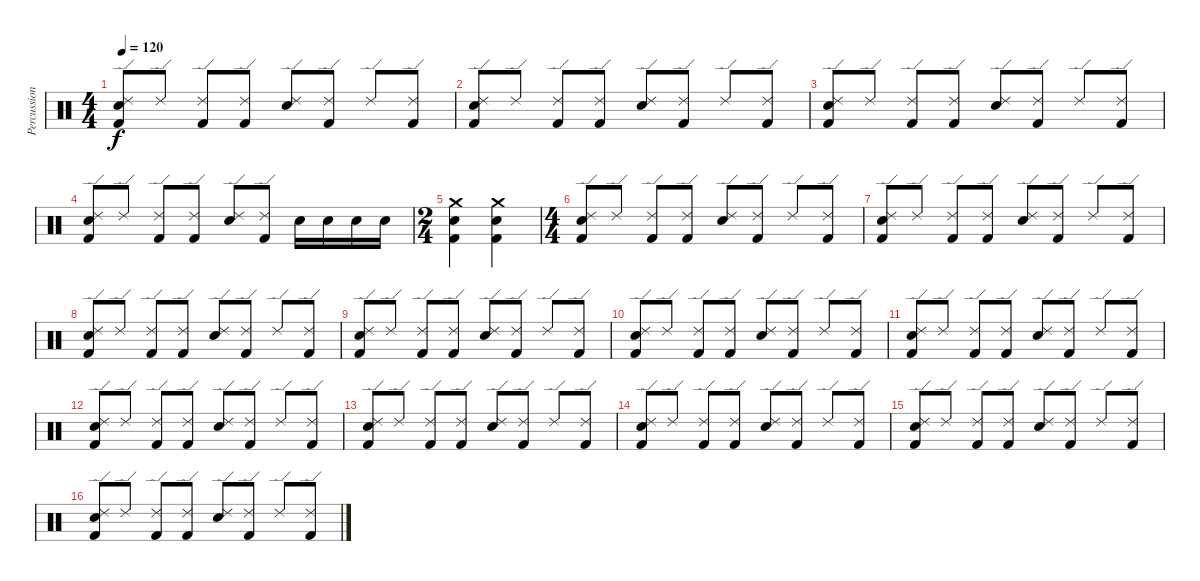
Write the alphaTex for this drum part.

\track ("Percussion" "Percussion") {instrument percussion}
\staff {score}
\articulation defaults
\ts (4 4)
\tempo 120
\clef neutral
\ks c
("Kick (hit) 2" "Electric Snare (hit)" "Ride (edge) 2").8{dy f} "Ride (edge) 2".8 ("Kick (hit) 2" "Ride (edge) 2").8 ("Kick (hit) 2" "Ride (edge) 2").8 ("Electric Snare (hit)" "Ride (edge) 2").8 ("Kick (hit) 2" "Ride (edge) 2").8 "Ride (edge) 2".8 ("Kick (hit) 2" "Ride (edge) 2").8 |
("Kick (hit) 2" "Electric Snare (hit)" "Ride (edge) 2").8 "Ride (edge) 2".8 ("Kick (hit) 2" "Ride (edge) 2").8 ("Kick (hit) 2" "Ride (edge) 2").8 ("Electric Snare (hit)" "Ride (edge) 2").8 ("Kick (hit) 2" "Ride (edge) 2").8 "Ride (edge) 2".8 ("Kick (hit) 2" "Ride (edge) 2").8 |
("Kick (hit) 2" "Electric Snare (hit)" "Ride (edge) 2").8 "Ride (edge) 2".8 ("Kick (hit) 2" "Ride (edge) 2").8 ("Kick (hit) 2" "Ride (edge) 2").8 ("Electric Snare (hit)" "Ride (edge) 2").8 ("Kick (hit) 2" "Ride (edge) 2").8 "Ride (edge) 2".8 ("Kick (hit) 2" "Ride (edge) 2").8 |
("Kick (hit) 2" "Electric Snare (hit)" "Ride (edge) 2").8 "Ride (edge) 2".8 ("Kick (hit) 2" "Ride (edge) 2").8 ("Kick (hit) 2" "Ride (edge) 2").8 ("Electric Snare (hit)" "Ride (edge) 2").8 ("Kick (hit) 2" "Ride (edge) 2").8 "Electric Snare (hit)".16 "Electric Snare (hit)".16 "Electric Snare (hit)".16 "Electric Snare (hit)".16 |
\ts (2 4)
("Kick (hit) 2" "Electric Snare (hit)" "Crash medium (hit)").4 ("Kick (hit) 2" "Electric Snare (hit)" "Crash medium (hit)").4 |
\ts (4 4)
("Kick (hit) 2" "Electric Snare (hit)" "Ride (edge) 2").8 "Ride (edge) 2".8 ("Kick (hit) 2" "Ride (edge) 2").8 ("Kick (hit) 2" "Ride (edge) 2").8 ("Electric Snare (hit)" "Ride (edge) 2").8 ("Kick (hit) 2" "Ride (edge) 2").8 "Ride (edge) 2".8 ("Kick (hit) 2" "Ride (edge) 2").8 |
("Kick (hit) 2" "Electric Snare (hit)" "Ride (edge) 2").8 "Ride (edge) 2".8 ("Kick (hit) 2" "Ride (edge) 2").8 ("Kick (hit) 2" "Ride (edge) 2").8 ("Electric Snare (hit)" "Ride (edge) 2").8 ("Kick (hit) 2" "Ride (edge) 2").8 "Ride (edge) 2".8 ("Kick (hit) 2" "Ride (edge) 2").8 |
("Kick (hit) 2" "Electric Snare (hit)" "Ride (edge) 2").8 "Ride (edge) 2".8 ("Kick (hit) 2" "Ride (edge) 2").8 ("Kick (hit) 2" "Ride (edge) 2").8 ("Electric Snare (hit)" "Ride (edge) 2").8 ("Kick (hit) 2" "Ride (edge) 2").8 "Ride (edge) 2".8 ("Kick (hit) 2" "Ride (edge) 2").8 |
("Kick (hit) 2" "Electric Snare (hit)" "Ride (edge) 2").8 "Ride (edge) 2".8 ("Kick (hit) 2" "Ride (edge) 2").8 ("Kick (hit) 2" "Ride (edge) 2").8 ("Electric Snare (hit)" "Ride (edge) 2").8 ("Kick (hit) 2" "Ride (edge) 2").8 "Ride (edge) 2".8 ("Kick (hit) 2" "Ride (edge) 2").8 |
("Kick (hit) 2" "Electric Snare (hit)" "Ride (edge) 2").8 "Ride (edge) 2".8 ("Kick (hit) 2" "Ride (edge) 2").8 ("Kick (hit) 2" "Ride (edge) 2").8 ("Electric Snare (hit)" "Ride (edge) 2").8 ("Kick (hit) 2" "Ride (edge) 2").8 "Ride (edge) 2".8 ("Kick (hit) 2" "Ride (edge) 2").8 |
("Kick (hit) 2" "Electric Snare (hit)" "Ride (edge) 2").8 "Ride (edge) 2".8 ("Kick (hit) 2" "Ride (edge) 2").8 ("Kick (hit) 2" "Ride (edge) 2").8 ("Electric Snare (hit)" "Ride (edge) 2").8 ("Kick (hit) 2" "Ride (edge) 2").8 "Ride (edge) 2".8 ("Kick (hit) 2" "Ride (edge) 2").8 |
("Kick (hit) 2" "Electric Snare (hit)" "Ride (edge) 2").8 "Ride (edge) 2".8 ("Kick (hit) 2" "Ride (edge) 2").8 ("Kick (hit) 2" "Ride (edge) 2").8 ("Electric Snare (hit)" "Ride (edge) 2").8 ("Kick (hit) 2" "Ride (edge) 2").8 "Ride (edge) 2".8 ("Kick (hit) 2" "Ride (edge) 2").8 |
("Kick (hit) 2" "Electric Snare (hit)" "Ride (edge) 2").8 "Ride (edge) 2".8 ("Kick (hit) 2" "Ride (edge) 2").8 ("Kick (hit) 2" "Ride (edge) 2").8 ("Electric Snare (hit)" "Ride (edge) 2").8 ("Kick (hit) 2" "Ride (edge) 2").8 "Ride (edge) 2".8 ("Kick (hit) 2" "Ride (edge) 2").8 |
("Kick (hit) 2" "Electric Snare (hit)" "Ride (edge) 2").8 "Ride (edge) 2".8 ("Kick (hit) 2" "Ride (edge) 2").8 ("Kick (hit) 2" "Ride (edge) 2").8 ("Electric Snare (hit)" "Ride (edge) 2").8 ("Kick (hit) 2" "Ride (edge) 2").8 "Ride (edge) 2".8 ("Kick (hit) 2" "Ride (edge) 2").8 |
("Kick (hit) 2" "Electric Snare (hit)" "Ride (edge) 2").8 "Ride (edge) 2".8 ("Kick (hit) 2" "Ride (edge) 2").8 ("Kick (hit) 2" "Ride (edge) 2").8 ("Electric Snare (hit)" "Ride (edge) 2").8 ("Kick (hit) 2" "Ride (edge) 2").8 "Ride (edge) 2".8 ("Kick (hit) 2" "Ride (edge) 2").8 |
("Kick (hit) 2" "Electric Snare (hit)" "Ride (edge) 2").8 "Ride (edge) 2".8 ("Kick (hit) 2" "Ride (edge) 2").8 ("Kick (hit) 2" "Ride (edge) 2").8 ("Electric Snare (hit)" "Ride (edge) 2").8 ("Kick (hit) 2" "Ride (edge) 2").8 "Ride (edge) 2".8 ("Kick (hit) 2" "Ride (edge) 2").8
